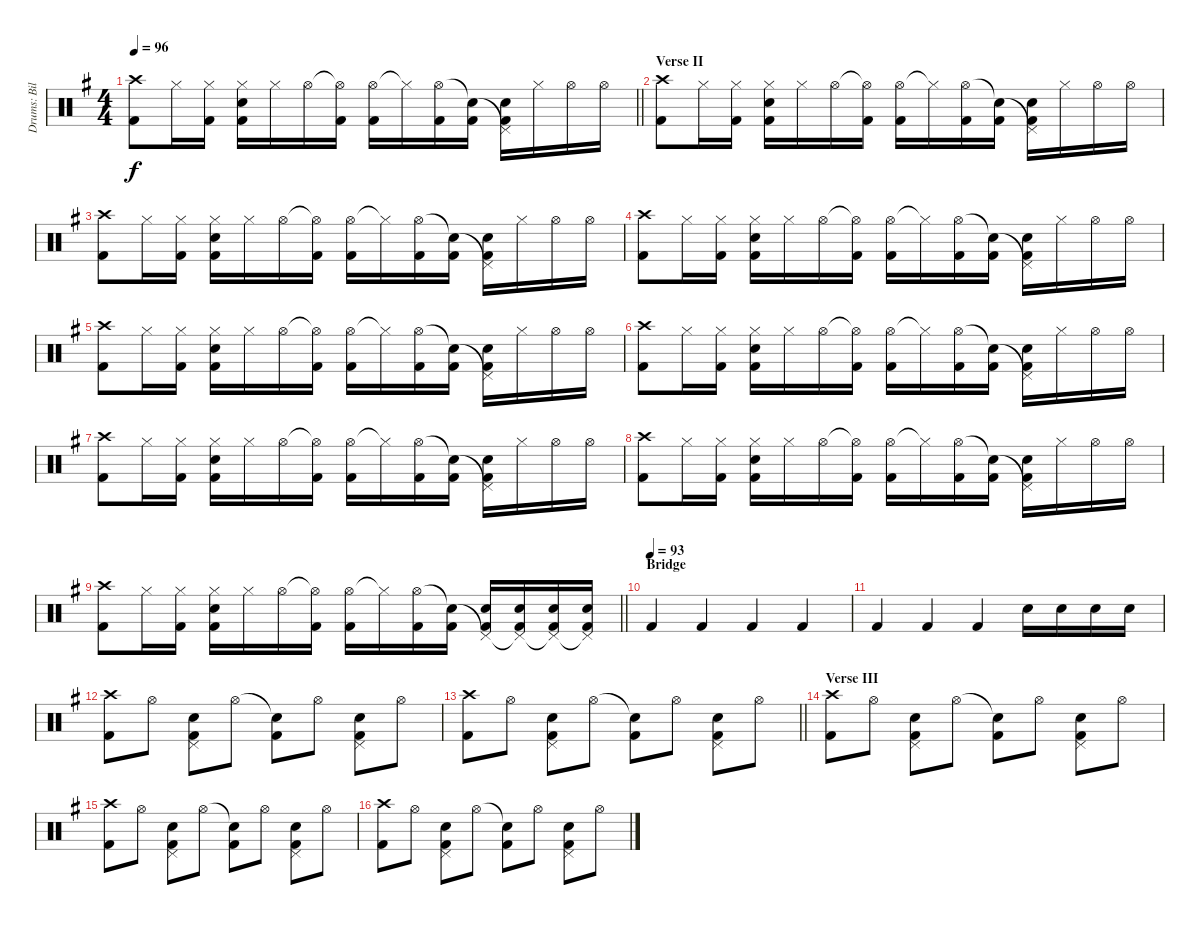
\track ("Drums: Bill" "Drums: Bil") {instrument percussion}
\staff {score}
\articulation defaults
\ts (4 4)
\tempo 96
\clef neutral
\barLineRight lightlight
\ks g
("Crash high (hit)" "Kick (hit) 2").8{dy f} "Hi-Hat (closed)".16 ("Hi-Hat (closed)" "Kick (hit) 2").16 ("Hi-Hat (closed)" "Snare (hit) 2" "Kick (hit) 2").16 "Hi-Hat (closed)".16 "Hi-Hat (open)".16 ("Hi-Hat (open)"{t} "Kick (hit) 2").16 ("Hi-Hat (open)" "Kick (hit) 2").16 "Hi-Hat (closed)"{t}.16 ("Hi-Hat (open)" "Kick (hit) 2").16 ("Snare (hit)"{t} "Kick (hit) 2").16 ("Pedal Hi-Hat (hit)"{t} "Snare (hit) 2" "Kick (hit) 2").16 "Hi-Hat (closed)".16 "Hi-Hat (open)".16 "Hi-Hat (open)".16 |
\section ("" "Verse II")
("Crash high (hit)" "Kick (hit) 2").8 "Hi-Hat (closed)".16 ("Hi-Hat (closed)" "Kick (hit) 2").16 ("Hi-Hat (closed)" "Snare (hit) 2" "Kick (hit) 2").16 "Hi-Hat (closed)".16 "Hi-Hat (open)".16 ("Hi-Hat (open)"{t} "Kick (hit) 2").16 ("Hi-Hat (open)" "Kick (hit) 2").16 "Hi-Hat (closed)"{t}.16 ("Hi-Hat (open)" "Kick (hit) 2").16 ("Snare (hit)"{t} "Kick (hit) 2").16 ("Pedal Hi-Hat (hit)"{t} "Snare (hit) 2" "Kick (hit) 2").16 "Hi-Hat (closed)".16 "Hi-Hat (open)".16 "Hi-Hat (open)".16 |
("Crash high (hit)" "Kick (hit) 2").8 "Hi-Hat (closed)".16 ("Hi-Hat (closed)" "Kick (hit) 2").16 ("Hi-Hat (closed)" "Snare (hit) 2" "Kick (hit) 2").16 "Hi-Hat (closed)".16 "Hi-Hat (open)".16 ("Hi-Hat (open)"{t} "Kick (hit) 2").16 ("Hi-Hat (open)" "Kick (hit) 2").16 "Hi-Hat (closed)"{t}.16 ("Hi-Hat (open)" "Kick (hit) 2").16 ("Snare (hit)"{t} "Kick (hit) 2").16 ("Pedal Hi-Hat (hit)"{t} "Snare (hit) 2" "Kick (hit) 2").16 "Hi-Hat (closed)".16 "Hi-Hat (open)".16 "Hi-Hat (open)".16 |
("Crash high (hit)" "Kick (hit) 2").8 "Hi-Hat (closed)".16 ("Hi-Hat (closed)" "Kick (hit) 2").16 ("Hi-Hat (closed)" "Snare (hit) 2" "Kick (hit) 2").16 "Hi-Hat (closed)".16 "Hi-Hat (open)".16 ("Hi-Hat (open)"{t} "Kick (hit) 2").16 ("Hi-Hat (open)" "Kick (hit) 2").16 "Hi-Hat (closed)"{t}.16 ("Hi-Hat (open)" "Kick (hit) 2").16 ("Snare (hit)"{t} "Kick (hit) 2").16 ("Pedal Hi-Hat (hit)"{t} "Snare (hit) 2" "Kick (hit) 2").16 "Hi-Hat (closed)".16 "Hi-Hat (open)".16 "Hi-Hat (open)".16 |
("Crash high (hit)" "Kick (hit) 2").8 "Hi-Hat (closed)".16 ("Hi-Hat (closed)" "Kick (hit) 2").16 ("Hi-Hat (closed)" "Snare (hit) 2" "Kick (hit) 2").16 "Hi-Hat (closed)".16 "Hi-Hat (open)".16 ("Hi-Hat (open)"{t} "Kick (hit) 2").16 ("Hi-Hat (open)" "Kick (hit) 2").16 "Hi-Hat (closed)"{t}.16 ("Hi-Hat (open)" "Kick (hit) 2").16 ("Snare (hit)"{t} "Kick (hit) 2").16 ("Pedal Hi-Hat (hit)"{t} "Snare (hit) 2" "Kick (hit) 2").16 "Hi-Hat (closed)".16 "Hi-Hat (open)".16 "Hi-Hat (open)".16 |
("Crash high (hit)" "Kick (hit) 2").8 "Hi-Hat (closed)".16 ("Hi-Hat (closed)" "Kick (hit) 2").16 ("Hi-Hat (closed)" "Snare (hit) 2" "Kick (hit) 2").16 "Hi-Hat (closed)".16 "Hi-Hat (open)".16 ("Hi-Hat (open)"{t} "Kick (hit) 2").16 ("Hi-Hat (open)" "Kick (hit) 2").16 "Hi-Hat (closed)"{t}.16 ("Hi-Hat (open)" "Kick (hit) 2").16 ("Snare (hit)"{t} "Kick (hit) 2").16 ("Pedal Hi-Hat (hit)"{t} "Snare (hit) 2" "Kick (hit) 2").16 "Hi-Hat (closed)".16 "Hi-Hat (open)".16 "Hi-Hat (open)".16 |
("Crash high (hit)" "Kick (hit) 2").8 "Hi-Hat (closed)".16 ("Hi-Hat (closed)" "Kick (hit) 2").16 ("Hi-Hat (closed)" "Snare (hit) 2" "Kick (hit) 2").16 "Hi-Hat (closed)".16 "Hi-Hat (open)".16 ("Hi-Hat (open)"{t} "Kick (hit) 2").16 ("Hi-Hat (open)" "Kick (hit) 2").16 "Hi-Hat (closed)"{t}.16 ("Hi-Hat (open)" "Kick (hit) 2").16 ("Snare (hit)"{t} "Kick (hit) 2").16 ("Pedal Hi-Hat (hit)"{t} "Snare (hit) 2" "Kick (hit) 2").16 "Hi-Hat (closed)".16 "Hi-Hat (open)".16 "Hi-Hat (open)".16 |
("Crash high (hit)" "Kick (hit) 2").8 "Hi-Hat (closed)".16 ("Hi-Hat (closed)" "Kick (hit) 2").16 ("Hi-Hat (closed)" "Snare (hit) 2" "Kick (hit) 2").16 "Hi-Hat (closed)".16 "Hi-Hat (open)".16 ("Hi-Hat (open)"{t} "Kick (hit) 2").16 ("Hi-Hat (open)" "Kick (hit) 2").16 "Hi-Hat (closed)"{t}.16 ("Hi-Hat (open)" "Kick (hit) 2").16 ("Snare (hit)"{t} "Kick (hit) 2").16 ("Pedal Hi-Hat (hit)"{t} "Snare (hit) 2" "Kick (hit) 2").16 "Hi-Hat (closed)".16 "Hi-Hat (open)".16 "Hi-Hat (open)".16 |
\barLineRight lightlight
("Crash high (hit)" "Kick (hit) 2").8 "Hi-Hat (closed)".16 ("Hi-Hat (closed)" "Kick (hit) 2").16 ("Hi-Hat (closed)" "Snare (hit) 2" "Kick (hit) 2").16 "Hi-Hat (closed)".16 "Hi-Hat (open)".16 ("Hi-Hat (open)"{t} "Kick (hit) 2").16 ("Hi-Hat (open)" "Kick (hit) 2").16 "Hi-Hat (closed)"{t}.16 ("Hi-Hat (open)" "Kick (hit) 2").16 ("Snare (hit)"{t} "Kick (hit) 2").16 ("Pedal Hi-Hat (hit)"{t} "Snare (hit) 2" "Kick (hit) 2").16 ("Pedal Hi-Hat (hit)"{t} "Snare (hit) 2" "Kick (hit) 2").16 ("Pedal Hi-Hat (hit)"{t} "Snare (hit) 2" "Kick (hit) 2").16 ("Pedal Hi-Hat (hit)"{t} "Snare (hit) 2" "Kick (hit) 2").16 |
\section ("" "Bridge")
\tempo (93)
"Kick (hit) 2".4 "Kick (hit) 2".4 "Kick (hit) 2".4 "Kick (hit) 2".4 |
"Kick (hit) 2".4 "Kick (hit) 2".4 "Kick (hit) 2".4 "Electric Snare (hit)".16 "Electric Snare (hit)".16 "Electric Snare (hit)".16 "Electric Snare (hit)".16 |
("Crash high (hit)" "Kick (hit) 2").8 "Hi-Hat (open)".8 ("Pedal Hi-Hat (hit)" "Snare (hit) 2" "Kick (hit) 2").8 "Hi-Hat (open)".8 ("Snare (hit)"{t} "Kick (hit) 2").8 "Hi-Hat (open)".8 ("Pedal Hi-Hat (hit)" "Snare (hit) 2" "Kick (hit) 2").8 "Hi-Hat (open)".8 |
\barLineRight lightlight
("Crash high (hit)" "Kick (hit) 2").8 "Hi-Hat (open)".8 ("Pedal Hi-Hat (hit)" "Snare (hit) 2" "Kick (hit) 2").8 "Hi-Hat (open)".8 ("Snare (hit)"{t} "Kick (hit) 2").8 "Hi-Hat (open)".8 ("Pedal Hi-Hat (hit)" "Snare (hit) 2" "Kick (hit) 2").8 "Hi-Hat (open)".8 |
\section ("" "Verse III")
("Crash high (hit)" "Kick (hit) 2").8 "Hi-Hat (open)".8 ("Pedal Hi-Hat (hit)" "Snare (hit) 2" "Kick (hit) 2").8 "Hi-Hat (open)".8 ("Snare (hit)"{t} "Kick (hit) 2").8 "Hi-Hat (open)".8 ("Pedal Hi-Hat (hit)" "Snare (hit) 2" "Kick (hit) 2").8 "Hi-Hat (open)".8 |
("Crash high (hit)" "Kick (hit) 2").8 "Hi-Hat (open)".8 ("Pedal Hi-Hat (hit)" "Snare (hit) 2" "Kick (hit) 2").8 "Hi-Hat (open)".8 ("Snare (hit)"{t} "Kick (hit) 2").8 "Hi-Hat (open)".8 ("Pedal Hi-Hat (hit)" "Snare (hit) 2" "Kick (hit) 2").8 "Hi-Hat (open)".8 |
("Crash high (hit)" "Kick (hit) 2").8 "Hi-Hat (open)".8 ("Pedal Hi-Hat (hit)" "Snare (hit) 2" "Kick (hit) 2").8 "Hi-Hat (open)".8 ("Snare (hit)"{t} "Kick (hit) 2").8 "Hi-Hat (open)".8 ("Pedal Hi-Hat (hit)" "Snare (hit) 2" "Kick (hit) 2").8 "Hi-Hat (open)".8
